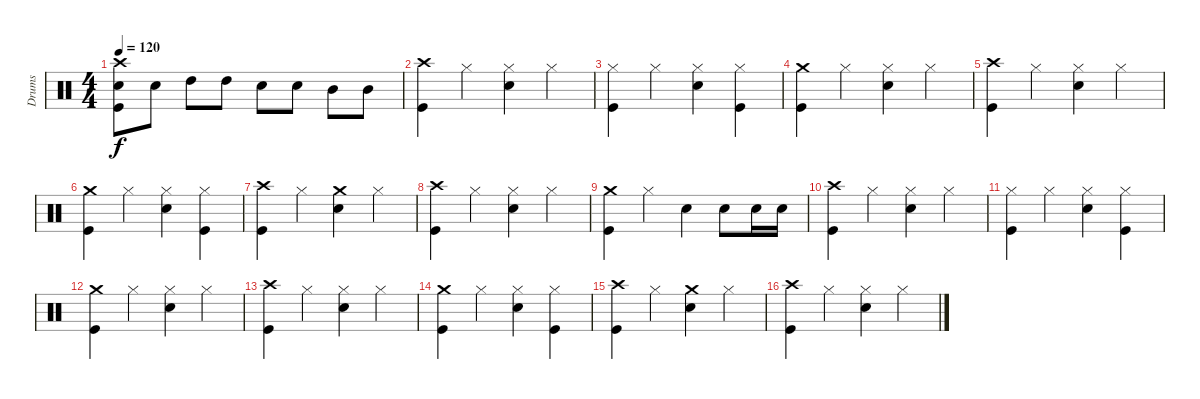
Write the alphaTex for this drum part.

\track ("Drums" "Drums") {instrument percussion}
\staff {score}
\articulation defaults
\ts (4 4)
\tempo 120
\clef neutral
\ks c
("Crash high (hit)" "Snare (hit) 2" "Kick (hit)").8{dy f} "Snare (hit) 2".8 "High Tom (hit)".8 "High Tom (hit)".8 "Snare (hit) 2".8 "Snare (hit) 2".8 "Mid Tom (hit)".8 "Mid Tom (hit)".8 |
("Crash high (hit)" "Kick (hit)").4 "Hi-Hat (closed)".4 ("Hi-Hat (closed)" "Snare (hit) 2").4 "Hi-Hat (closed)".4 |
("Hi-Hat (closed)" "Kick (hit)").4 "Hi-Hat (closed)".4 ("Hi-Hat (closed)" "Snare (hit) 2").4 ("Hi-Hat (closed)" "Kick (hit)").4 |
("Crash medium (hit)" "Kick (hit)").4 "Hi-Hat (closed)".4 ("Hi-Hat (closed)" "Snare (hit) 2").4 "Hi-Hat (closed)".4 |
("Crash high (hit)" "Kick (hit)").4 "Hi-Hat (closed)".4 ("Hi-Hat (closed)" "Snare (hit) 2").4 "Hi-Hat (closed)".4 |
("Crash medium (hit)" "Kick (hit)").4 "Hi-Hat (closed)".4 ("Hi-Hat (closed)" "Snare (hit) 2").4 ("Hi-Hat (closed)" "Kick (hit)").4 |
("Crash high (hit)" "Kick (hit)").4 "Hi-Hat (closed)".4 ("Crash medium (hit)" "Snare (hit) 2").4 "Hi-Hat (closed)".4 |
("Crash high (hit)" "Kick (hit)").4 "Hi-Hat (closed)".4 ("Hi-Hat (closed)" "Snare (hit) 2").4 "Hi-Hat (closed)".4 |
("Crash medium (hit)" "Kick (hit)").4 "Hi-Hat (closed)".4 "Snare (hit) 2".4 "Snare (hit) 2".8 "Snare (hit) 2".16 "Snare (hit) 2".16 |
("Crash high (hit)" "Kick (hit)").4 "Hi-Hat (closed)".4 ("Hi-Hat (closed)" "Snare (hit) 2").4 "Hi-Hat (closed)".4 |
("Hi-Hat (closed)" "Kick (hit)").4 "Hi-Hat (closed)".4 ("Hi-Hat (closed)" "Snare (hit) 2").4 ("Hi-Hat (closed)" "Kick (hit)").4 |
("Crash medium (hit)" "Kick (hit)").4 "Hi-Hat (closed)".4 ("Hi-Hat (closed)" "Snare (hit) 2").4 "Hi-Hat (closed)".4 |
("Crash high (hit)" "Kick (hit)").4 "Hi-Hat (closed)".4 ("Hi-Hat (closed)" "Snare (hit) 2").4 "Hi-Hat (closed)".4 |
("Crash medium (hit)" "Kick (hit)").4 "Hi-Hat (closed)".4 ("Hi-Hat (closed)" "Snare (hit) 2").4 ("Hi-Hat (closed)" "Kick (hit)").4 |
("Crash high (hit)" "Kick (hit)").4 "Hi-Hat (closed)".4 ("Crash medium (hit)" "Snare (hit) 2").4 "Hi-Hat (closed)".4 |
("Crash high (hit)" "Kick (hit)").4 "Hi-Hat (closed)".4 ("Hi-Hat (closed)" "Snare (hit) 2").4 "Hi-Hat (closed)".4
